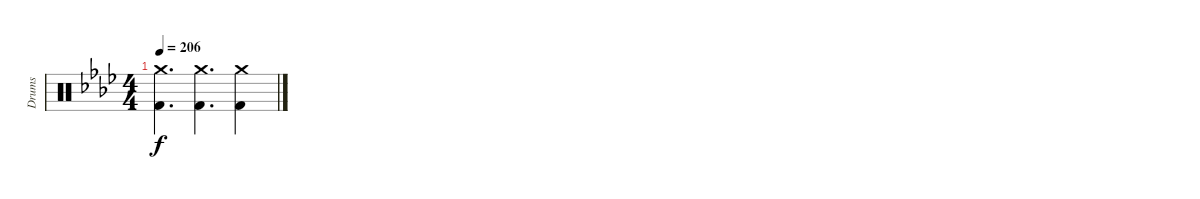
\track ("Drums" "Drums") {instrument percussion}
\staff {score}
\articulation defaults
\ts (4 4)
\tempo 206
\clef neutral
\ks fminor
("Crash medium (hit)" "Kick (hit) 2").4{d dy f} ("Crash medium (hit)" "Kick (hit) 2").4{d} ("Crash medium (hit)" "Kick (hit) 2").4
